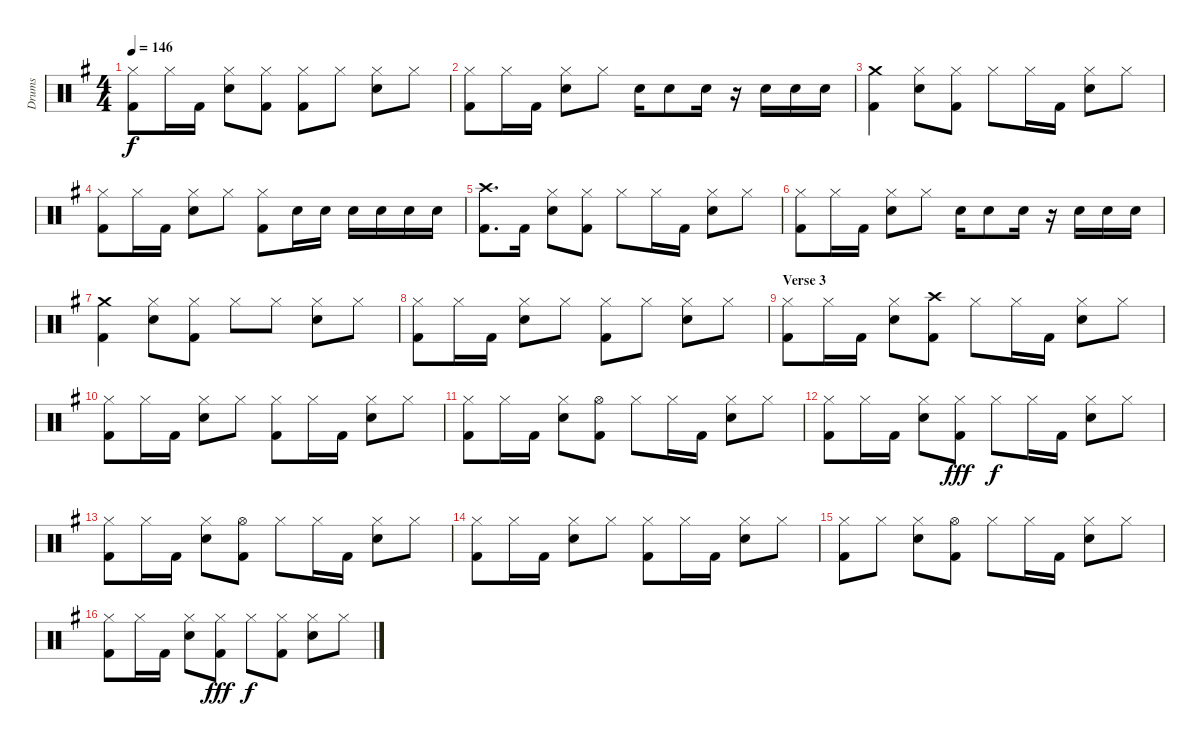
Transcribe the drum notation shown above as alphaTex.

\track ("Drums" "Drums") {instrument percussion}
\staff {score}
\articulation defaults
\ts (4 4)
\tempo 146
\clef neutral
\ks g
("Kick (hit) 2" "Hi-Hat (closed)").8{dy f} "Hi-Hat (closed)".16 "Kick (hit) 2".16 ("Snare (hit) 2" "Hi-Hat (closed)").8 ("Kick (hit) 2" "Hi-Hat (closed)").8 ("Kick (hit) 2" "Hi-Hat (closed)").8 "Hi-Hat (closed)".8 ("Snare (hit) 2" "Hi-Hat (closed)").8 "Hi-Hat (closed)".8 |
("Kick (hit) 2" "Hi-Hat (closed)").8 "Hi-Hat (closed)".16 "Kick (hit) 2".16 ("Snare (hit) 2" "Hi-Hat (closed)").8 "Hi-Hat (closed)".8 "Snare (hit) 2".16 "Snare (hit) 2".8 "Snare (hit) 2".16 r.16 "Snare (hit) 2".16 "Snare (hit) 2".16 "Snare (hit) 2".16 |
("Kick (hit) 2" "Crash medium (hit)").4 ("Snare (hit) 2" "Hi-Hat (closed)").8 ("Kick (hit) 2" "Hi-Hat (closed)").8 "Hi-Hat (closed)".8 "Hi-Hat (closed)".16 "Kick (hit) 2".16 ("Snare (hit) 2" "Hi-Hat (closed)").8 "Hi-Hat (closed)".8 |
("Kick (hit) 2" "Hi-Hat (closed)").8 "Hi-Hat (closed)".16 "Kick (hit) 2".16 ("Snare (hit) 2" "Hi-Hat (closed)").8 "Hi-Hat (closed)".8 ("Kick (hit) 2" "Hi-Hat (closed)").8 "Snare (hit) 2".16 "Snare (hit) 2".16 "Snare (hit) 2".16 "Snare (hit) 2".16 "Snare (hit) 2".16 "Snare (hit) 2".16 |
("Kick (hit) 2" "Crash high (hit)").8{d} "Kick (hit) 2".16 ("Snare (hit) 2" "Hi-Hat (closed)").8 ("Kick (hit) 2" "Hi-Hat (closed)").8 "Hi-Hat (closed)".8 "Hi-Hat (closed)".16 "Kick (hit) 2".16 ("Snare (hit) 2" "Hi-Hat (closed)").8 "Hi-Hat (closed)".8 |
("Kick (hit) 2" "Hi-Hat (closed)").8 "Hi-Hat (closed)".16 "Kick (hit) 2".16 ("Snare (hit) 2" "Hi-Hat (closed)").8 "Hi-Hat (closed)".8 "Snare (hit) 2".16 "Snare (hit) 2".8 "Snare (hit) 2".16 r.16 "Snare (hit) 2".16 "Snare (hit) 2".16 "Snare (hit) 2".16 |
("Kick (hit) 2" "Crash medium (hit)").4 ("Snare (hit) 2" "Hi-Hat (closed)").8 ("Kick (hit) 2" "Hi-Hat (closed)").8 "Hi-Hat (closed)".8 "Hi-Hat (closed)".8 ("Snare (hit) 2" "Hi-Hat (closed)").8 "Hi-Hat (closed)".8 |
("Kick (hit) 2" "Hi-Hat (closed)").8 "Hi-Hat (closed)".16 "Kick (hit) 2".16 ("Snare (hit) 2" "Hi-Hat (closed)").8 "Hi-Hat (closed)".8 ("Kick (hit) 2" "Hi-Hat (closed)").8 "Hi-Hat (closed)".8 ("Snare (hit) 2" "Hi-Hat (closed)").8 "Hi-Hat (closed)".8 |
\section ("" "Verse 3")
("Kick (hit) 2" "Hi-Hat (closed)").8 "Hi-Hat (closed)".16 "Kick (hit) 2".16 ("Snare (hit) 2" "Hi-Hat (closed)").8 ("Kick (hit) 2" "Crash high (hit)").8 "Hi-Hat (closed)".8 "Hi-Hat (closed)".16 "Kick (hit) 2".16 ("Snare (hit) 2" "Hi-Hat (closed)").8 "Hi-Hat (closed)".8 |
("Kick (hit) 2" "Hi-Hat (closed)").8 "Hi-Hat (closed)".16 "Kick (hit) 2".16 ("Snare (hit) 2" "Hi-Hat (closed)").8 "Hi-Hat (closed)".8 ("Kick (hit) 2" "Hi-Hat (closed)").8 "Hi-Hat (closed)".16 "Kick (hit) 2".16 ("Snare (hit) 2" "Hi-Hat (closed)").8 "Hi-Hat (closed)".8 |
("Kick (hit) 2" "Hi-Hat (closed)").8 "Hi-Hat (closed)".16 "Kick (hit) 2".16 ("Snare (hit) 2" "Hi-Hat (closed)").8 ("Kick (hit) 2" "Hi-Hat (open)").8 "Hi-Hat (closed)".8 "Hi-Hat (closed)".16 "Kick (hit) 2".16 ("Snare (hit) 2" "Hi-Hat (closed)").8 "Hi-Hat (closed)".8 |
("Kick (hit) 2" "Hi-Hat (closed)").8 "Hi-Hat (closed)".16 "Kick (hit) 2".16 ("Snare (hit) 2" "Hi-Hat (closed)").8 ("Kick (hit) 2" "Hi-Hat (closed)").8{dy fff} "Hi-Hat (closed)".8{dy f} "Hi-Hat (closed)".16 "Kick (hit) 2".16 ("Snare (hit) 2" "Hi-Hat (closed)").8 "Hi-Hat (closed)".8 |
("Kick (hit) 2" "Hi-Hat (closed)").8 "Hi-Hat (closed)".16 "Kick (hit) 2".16 ("Snare (hit) 2" "Hi-Hat (closed)").8 ("Kick (hit) 2" "Hi-Hat (open)").8 "Hi-Hat (closed)".8 "Hi-Hat (closed)".16 "Kick (hit) 2".16 ("Snare (hit) 2" "Hi-Hat (closed)").8 "Hi-Hat (closed)".8 |
("Kick (hit) 2" "Hi-Hat (closed)").8 "Hi-Hat (closed)".16 "Kick (hit) 2".16 ("Snare (hit) 2" "Hi-Hat (closed)").8 "Hi-Hat (closed)".8 ("Kick (hit) 2" "Hi-Hat (closed)").8 "Hi-Hat (closed)".16 "Kick (hit) 2".16 ("Snare (hit) 2" "Hi-Hat (closed)").8 "Hi-Hat (closed)".8 |
("Kick (hit) 2" "Hi-Hat (closed)").8 "Hi-Hat (closed)".8 ("Snare (hit) 2" "Hi-Hat (closed)").8 ("Kick (hit) 2" "Hi-Hat (open)").8 "Hi-Hat (closed)".8 "Hi-Hat (closed)".16 "Kick (hit) 2".16 ("Snare (hit) 2" "Hi-Hat (closed)").8 "Hi-Hat (closed)".8 |
("Kick (hit) 2" "Hi-Hat (closed)").8 "Hi-Hat (closed)".16 "Kick (hit) 2".16 ("Snare (hit) 2" "Hi-Hat (closed)").8 ("Kick (hit) 2" "Hi-Hat (closed)").8{dy fff} "Hi-Hat (closed)".8{dy f} ("Kick (hit) 2" "Hi-Hat (closed)").8 ("Snare (hit) 2" "Hi-Hat (closed)").8 "Hi-Hat (closed)".8
